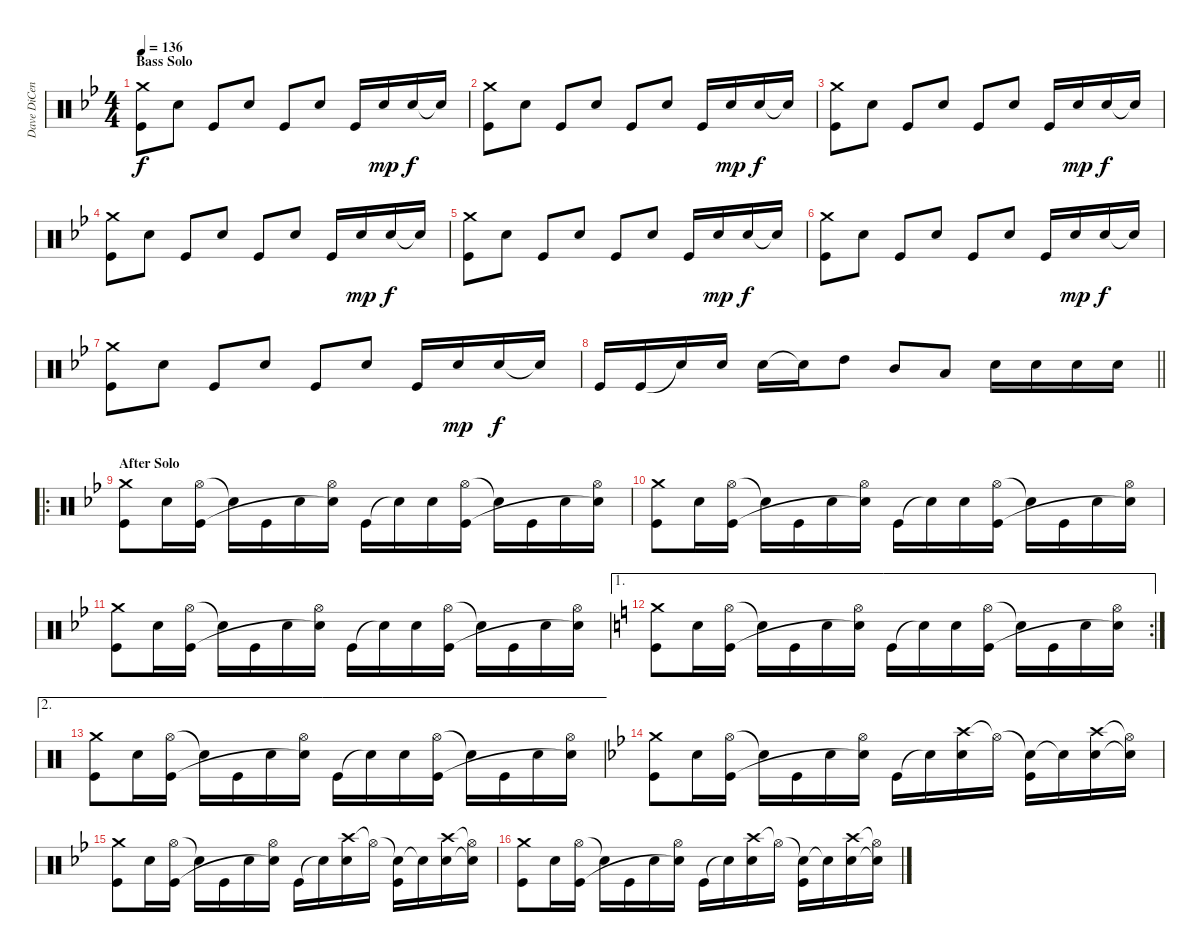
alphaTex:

\track ("Dave DiCenso" "Dave DiCen") {instrument percussion}
\staff {score}
\articulation defaults
\ts (4 4)
\section ("" "Bass Solo")
\tempo 136
\clef neutral
\ks bb
("Crash medium (hit)" "Kick (hit)").8{dy f} "Electric Snare (hit)".8 "Kick (hit)".8 "Electric Snare (hit)".8 "Kick (hit)".8 "Electric Snare (hit)".8 "Kick (hit)".16 "Electric Snare (hit)".16{dy mp} "Electric Snare (hit)".16{dy f} "Snare (hit)"{t}.16 |
("Crash medium (hit)" "Kick (hit)").8 "Electric Snare (hit)".8 "Kick (hit)".8 "Electric Snare (hit)".8 "Kick (hit)".8 "Electric Snare (hit)".8 "Kick (hit)".16 "Electric Snare (hit)".16{dy mp} "Electric Snare (hit)".16{dy f} "Snare (hit)"{t}.16 |
("Crash medium (hit)" "Kick (hit)").8 "Electric Snare (hit)".8 "Kick (hit)".8 "Electric Snare (hit)".8 "Kick (hit)".8 "Electric Snare (hit)".8 "Kick (hit)".16 "Electric Snare (hit)".16{dy mp} "Electric Snare (hit)".16{dy f} "Snare (hit)"{t}.16 |
("Crash medium (hit)" "Kick (hit)").8 "Electric Snare (hit)".8 "Kick (hit)".8 "Electric Snare (hit)".8 "Kick (hit)".8 "Electric Snare (hit)".8 "Kick (hit)".16 "Electric Snare (hit)".16{dy mp} "Electric Snare (hit)".16{dy f} "Snare (hit)"{t}.16 |
("Crash medium (hit)" "Kick (hit)").8 "Electric Snare (hit)".8 "Kick (hit)".8 "Electric Snare (hit)".8 "Kick (hit)".8 "Electric Snare (hit)".8 "Kick (hit)".16 "Electric Snare (hit)".16{dy mp} "Electric Snare (hit)".16{dy f} "Snare (hit)"{t}.16 |
("Crash medium (hit)" "Kick (hit)").8 "Electric Snare (hit)".8 "Kick (hit)".8 "Electric Snare (hit)".8 "Kick (hit)".8 "Electric Snare (hit)".8 "Kick (hit)".16 "Electric Snare (hit)".16{dy mp} "Electric Snare (hit)".16{dy f} "Snare (hit)"{t}.16 |
("Crash medium (hit)" "Kick (hit)").8 "Electric Snare (hit)".8 "Kick (hit)".8 "Electric Snare (hit)".8 "Kick (hit)".8 "Electric Snare (hit)".8 "Kick (hit)".16 "Electric Snare (hit)".16{dy mp} "Electric Snare (hit)".16{dy f} "Snare (hit)"{t}.16 |
\barLineRight lightlight "Kick (hit)".16 "Kick (hit)".16 "Snare (hit)"{t}.16 "Electric Snare (hit)".16 "Electric Snare (hit)".16 "Snare (hit)"{t}.16 "High Tom (hit)".8 "Mid Tom (hit)".8 "Low Tom (hit)".8 "Electric Snare (hit)".16 "Electric Snare (hit)".16 "Electric Snare (hit)".16 "Electric Snare (hit)".16
|
\ro
\section ("" "After Solo")
("Crash medium (hit)" "Kick (hit)").8 "Electric Snare (hit)".16 ("Hi-Hat (open)" "Kick (hit)").16 "Snare (hit)"{t}.16 "Kick (hit)".16 "Electric Snare (hit)".16 ("Hi-Hat (open)" "Snare (hit)"{t}).16 "Kick (hit)".16 "Snare (hit)"{t}.16 "Electric Snare (hit)".16 ("Hi-Hat (open)" "Kick (hit)").16 "Snare (hit)"{t}.16 "Kick (hit)".16 "Electric Snare (hit)".16 ("Hi-Hat (open)" "Snare (hit)"{t}).16 |
("Crash medium (hit)" "Kick (hit)").8 "Electric Snare (hit)".16 ("Hi-Hat (open)" "Kick (hit)").16 "Snare (hit)"{t}.16 "Kick (hit)".16 "Electric Snare (hit)".16 ("Hi-Hat (open)" "Snare (hit)"{t}).16 "Kick (hit)".16 "Snare (hit)"{t}.16 "Electric Snare (hit)".16 ("Hi-Hat (open)" "Kick (hit)").16 "Snare (hit)"{t}.16 "Kick (hit)".16 "Electric Snare (hit)".16 ("Hi-Hat (open)" "Snare (hit)"{t}).16 |
("Crash medium (hit)" "Kick (hit)").8 "Electric Snare (hit)".16 ("Hi-Hat (open)" "Kick (hit)").16 "Snare (hit)"{t}.16 "Kick (hit)".16 "Electric Snare (hit)".16 ("Hi-Hat (open)" "Snare (hit)"{t}).16 "Kick (hit)".16 "Snare (hit)"{t}.16 "Electric Snare (hit)".16 ("Hi-Hat (open)" "Kick (hit)").16 "Snare (hit)"{t}.16 "Kick (hit)".16 "Electric Snare (hit)".16 ("Hi-Hat (open)" "Snare (hit)"{t}).16 |
\ae 1
\rc 2
\ks c
("Crash medium (hit)" "Kick (hit)").8 "Electric Snare (hit)".16 ("Hi-Hat (open)" "Kick (hit)").16 "Snare (hit)"{t}.16 "Kick (hit)".16 "Electric Snare (hit)".16 ("Hi-Hat (open)" "Snare (hit)"{t}).16 "Kick (hit)".16 "Snare (hit)"{t}.16 "Electric Snare (hit)".16 ("Hi-Hat (open)" "Kick (hit)").16 "Snare (hit)"{t}.16 "Kick (hit)".16 "Electric Snare (hit)".16 ("Hi-Hat (open)" "Snare (hit)"{t}).16 |
\ae 2
("Crash medium (hit)" "Kick (hit)").8 "Electric Snare (hit)".16 ("Hi-Hat (open)" "Kick (hit)").16 "Snare (hit)"{t}.16 "Kick (hit)".16 "Electric Snare (hit)".16 ("Hi-Hat (open)" "Snare (hit)"{t}).16 "Kick (hit)".16 "Snare (hit)"{t}.16 "Electric Snare (hit)".16 ("Hi-Hat (open)" "Kick (hit)").16 "Snare (hit)"{t}.16 "Kick (hit)".16 "Electric Snare (hit)".16 ("Hi-Hat (open)" "Snare (hit)"{t}).16 |
\ks bb
("Crash medium (hit)" "Kick (hit)").8 "Electric Snare (hit)".16 ("Hi-Hat (open)" "Kick (hit)").16 "Snare (hit)"{t}.16 "Kick (hit)".16 "Electric Snare (hit)".16 ("Hi-Hat (open)" "Snare (hit)"{t}).16 "Kick (hit)".16 "Snare (hit)"{t}.16 ("Crash high (hit)" "Electric Snare (hit)").16 "Hi-Hat (open)"{t}.16 ("Snare (hit)"{t} "Kick (hit)").16 "Snare (hit)"{t}.16 ("Crash high (hit)" "Electric Snare (hit)").16 ("Hi-Hat (open)"{t} "Snare (hit)"{t}).16 |
("Crash medium (hit)" "Kick (hit)").8 "Electric Snare (hit)".16 ("Hi-Hat (open)" "Kick (hit)").16 "Snare (hit)"{t}.16 "Kick (hit)".16 "Electric Snare (hit)".16 ("Hi-Hat (open)" "Snare (hit)"{t}).16 "Kick (hit)".16 "Snare (hit)"{t}.16 ("Crash high (hit)" "Electric Snare (hit)").16 "Hi-Hat (open)"{t}.16 ("Snare (hit)"{t} "Kick (hit)").16 "Snare (hit)"{t}.16 ("Crash high (hit)" "Electric Snare (hit)").16 ("Hi-Hat (open)"{t} "Snare (hit)"{t}).16 |
("Crash medium (hit)" "Kick (hit)").8 "Electric Snare (hit)".16 ("Hi-Hat (open)" "Kick (hit)").16 "Snare (hit)"{t}.16 "Kick (hit)".16 "Electric Snare (hit)".16 ("Hi-Hat (open)" "Snare (hit)"{t}).16 "Kick (hit)".16 "Snare (hit)"{t}.16 ("Crash high (hit)" "Electric Snare (hit)").16 "Hi-Hat (open)"{t}.16 ("Snare (hit)"{t} "Kick (hit)").16 "Snare (hit)"{t}.16 ("Crash high (hit)" "Electric Snare (hit)").16 ("Hi-Hat (open)"{t} "Snare (hit)"{t}).16
